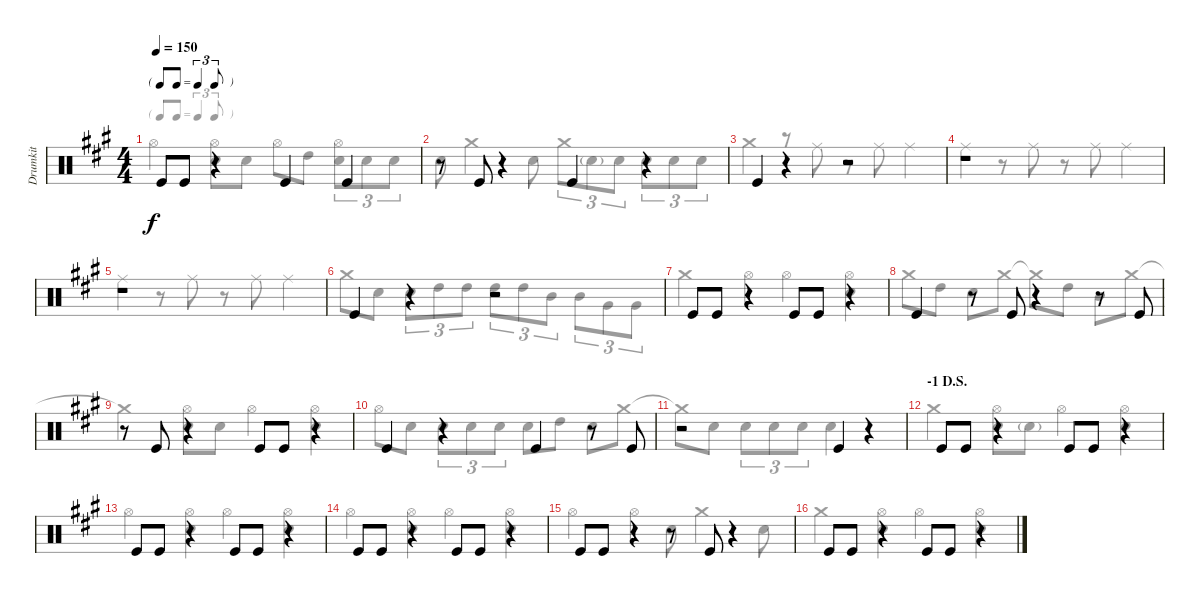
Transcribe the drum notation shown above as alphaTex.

\track ("Drumkit" "Drumkit") {instrument percussion}
\staff {score}
\articulation defaults
\voice
\ts (4 4)
\tf triplet8th
\tempo 150
\clef neutral
\ks a "Kick (hit)".8{dy f} "Kick (hit)".8
r.4 "Kick (hit)".4 "Kick (hit)".4 |
r.8 "Kick (hit)".8 r.4 "Kick (hit)".4 r.4 |
\section ("" "")
"Kick (hit)".4 r.4 r.2 |
r.1 |
r.1 |
"Kick (hit)".4 r.4 r.2 |
"Kick (hit)".8 "Kick (hit)".8 r.4 "Kick (hit)".8 "Kick (hit)".8 r.4 |
"Kick (hit)".4 r.8 "Kick (hit)".8 r.4 r.8 "Kick (hit)".8 |
r.8 "Kick (hit)".8 r.4 "Kick (hit)".8 "Kick (hit)".8 r.4 |
"Kick (hit)".4 r.4 "Kick (hit)".4 r.8 "Kick (hit)".8 |
r.2 "Kick (hit)".4 r.4 |
\section ("" "-1 D.S.")
"Kick (hit)".8 "Kick (hit)".8 r.4 "Kick (hit)".8 "Kick (hit)".8 r.4 |
"Kick (hit)".8 "Kick (hit)".8 r.4 "Kick (hit)".8 "Kick (hit)".8 r.4 |
"Kick (hit)".8 "Kick (hit)".8 r.4 "Kick (hit)".8 "Kick (hit)".8 r.4 |
"Kick (hit)".8 "Kick (hit)".8 r.4 r.8 "Kick (hit)".8 r.4 |
"Kick (hit)".8 "Kick (hit)".8 r.4 "Kick (hit)".8 "Kick (hit)".8 r.4
\voice
\clef neutral
\ottava regular
\simile none
\ks a "Hi-Hat (open)".4{dy f}
("Hi-Hat (open)" "Snare (hit) 2").8 "Snare (hit) 2".8 "Hi-Hat (open)".8 "High Tom (hit)".8 ("Hi-Hat (open)" "Snare (hit) 2").8{tu (3 2)} "Snare (hit) 2".8{tu (3 2)} "Snare (hit) 2".8{tu (3 2)} |
"Snare (hit) 2".8 "Crash medium (hit)".4 "Snare (hit) 2".8 "Crash medium (hit)".8{tu (3 2)} "Snare (hit) 2"{g}.8{tu (3 2)} "Snare (hit) 2".8{tu (3 2)} "Snare (hit) 2".8{tu (3 2)} "Snare (hit) 2".8{tu (3 2)} "Snare (hit) 2".8{tu (3 2)} |
"Crash medium (hit)".4 r.8 "Ride (middle)".8 r.8 "Ride (middle)".8 "Ride (middle)".4 |
"Ride (middle)".4 r.8 "Ride (middle)".8 r.8 "Ride (middle)".8 "Ride (middle)".4 |
"Ride (middle)".4 r.8 "Ride (middle)".8 r.8 "Ride (middle)".8 "Ride (middle)".4 |
"Crash medium (hit)".8 "Snare (hit) 2".8 "Snare (hit) 2".8{tu (3 2)} "High Tom (hit)".8{tu (3 2)} "High Tom (hit)".8{tu (3 2)} "High Tom (hit)".8{tu (3 2)} "High Tom (hit)".8{tu (3 2)} "Mid Tom (hit)".8{tu (3 2)} "Mid Tom (hit)".8{tu (3 2)} "Very Low Tom (hit)".8{tu (3 2)} "Very Low Tom (hit)".8{tu (3 2)} |
"Crash medium (hit)".4 "Hi-Hat (open)".4 "Hi-Hat (open)".4 ("Hi-Hat (open)" "Snare (hit) 2").4 |
"Crash medium (hit)".8 "High Tom (hit)".8 "Snare (hit) 2".8 "Crash medium (hit)".8 "Crash medium (hit)"{t}.8 "High Tom (hit)".8 "Mid Tom (hit)".8 "Crash medium (hit)".8 |
"Crash medium (hit)"{t}.4 ("Hi-Hat (open)" "Snare (hit) 2").8 "Snare (hit) 2".8 "Hi-Hat (open)".4 ("Hi-Hat (open)" "Snare (hit) 2").4 |
"Hi-Hat (open)".8 "Snare (hit) 2".8 "Snare (hit) 2".8{tu (3 2)} "Snare (hit) 2".8{tu (3 2)} "Snare (hit) 2".8{tu (3 2)} "Snare (hit) 2".8 "High Tom (hit)".8 "Snare (hit) 2".8 "Crash medium (hit)".8 |
"Crash medium (hit)"{t}.8 "Snare (hit) 2".8 "Snare (hit) 2".8{tu (3 2)} "Snare (hit) 2".8{tu (3 2)} "Snare (hit) 2".8{tu (3 2)} "Snare (hit) 2".4 r.4 |
"Crash medium (hit)".4 ("Hi-Hat (open)" "Snare (hit) 2").8 "Snare (hit) 2"{g}.8 "Hi-Hat (open)".4 ("Hi-Hat (open)" "Snare (hit) 2").4 |
"Hi-Hat (open)".4 ("Hi-Hat (open)" "Snare (hit) 2").4 "Hi-Hat (open)".4 ("Hi-Hat (open)" "Snare (hit) 2").4 |
"Hi-Hat (open)".4 ("Hi-Hat (open)" "Snare (hit) 2").4 "Hi-Hat (open)".4 ("Hi-Hat (open)" "Snare (hit) 2").4 |
"Hi-Hat (open)".4 "Hi-Hat (open)".4 "Snare (hit) 2".8 "Crash medium (hit)".4 "Snare (hit) 2".8 |
"Crash medium (hit)".4 ("Hi-Hat (open)" "Snare (hit) 2").4 "Hi-Hat (open)".4 ("Hi-Hat (open)" "Snare (hit) 2").4
